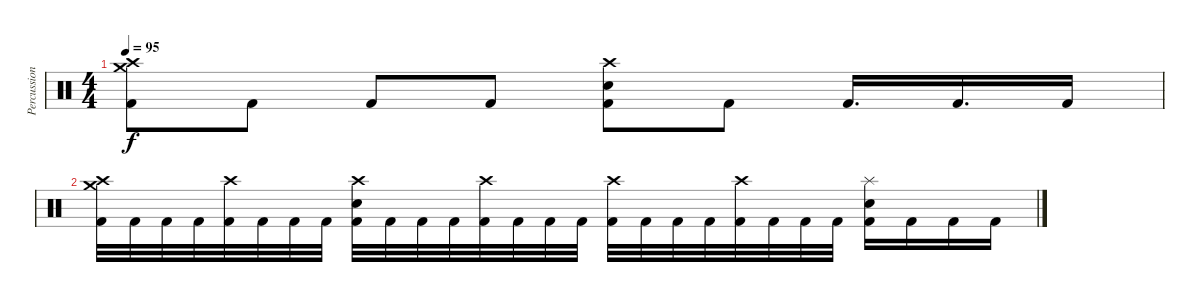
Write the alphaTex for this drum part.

\track ("Percussion" "Percussion") {instrument percussion}
\staff {score}
\articulation defaults
\ts (4 4)
\tempo 95
\clef neutral
\ks c
("Crash medium (hit)" "Crash high (hit)" "Kick (hit) 2").8{dy f} "Kick (hit) 2".8 "Kick (hit) 2".8 "Kick (hit) 2".8 ("Crash high (hit)" "Electric Snare (hit)" "Kick (hit) 2").8 "Kick (hit) 2".8 "Kick (hit) 2".16{d} "Kick (hit) 2".16{d} "Kick (hit) 2".16 |
("Crash high (hit)" "Crash medium (hit)" "Kick (hit) 2").32 "Kick (hit) 2".32 "Kick (hit) 2".32 "Kick (hit) 2".32 ("Crash high (hit)" "Kick (hit) 2").32 "Kick (hit) 2".32 "Kick (hit) 2".32 "Kick (hit) 2".32 ("Crash high (hit)" "Electric Snare (hit)" "Kick (hit) 2").32 "Kick (hit) 2".32 "Kick (hit) 2".32 "Kick (hit) 2".32 ("Crash high (hit)" "Kick (hit) 2").32 "Kick (hit) 2".32 "Kick (hit) 2".32 "Kick (hit) 2".32 ("Crash high (hit)" "Kick (hit) 2").32 "Kick (hit) 2".32 "Kick (hit) 2".32 "Kick (hit) 2".32 ("Crash high (hit)" "Kick (hit) 2").32 "Kick (hit) 2".32 "Kick (hit) 2".32 "Kick (hit) 2".32 ("Splash (hit)" "Electric Snare (hit)" "Kick (hit) 2").16 "Kick (hit) 2".16 "Kick (hit) 2".16 "Kick (hit) 2".16
